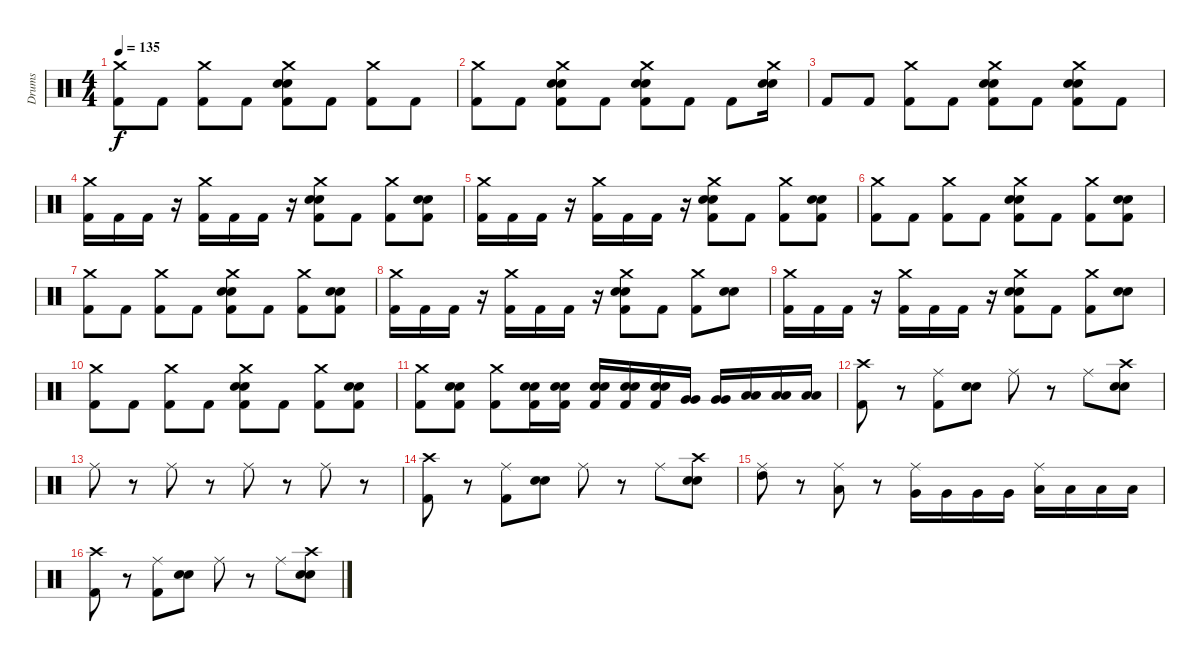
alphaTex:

\track ("Drums" "Drums") {instrument percussion}
\staff {score}
\articulation defaults
\ts (4 4)
\tempo 135
\clef neutral
\ks c
("Crash medium (hit)" "Kick (hit) 2").8{dy f} "Kick (hit) 2".8 ("Crash medium (hit)" "Kick (hit) 2").8 "Kick (hit) 2".8 ("Crash medium (hit)" "Electric Snare (hit)" "Snare (hit) 2" "Kick (hit) 2").8 "Kick (hit) 2".8 ("Crash medium (hit)" "Kick (hit) 2").8 "Kick (hit) 2".8 |
("Crash medium (hit)" "Kick (hit) 2").8 "Kick (hit) 2".8 ("Crash medium (hit)" "Electric Snare (hit)" "Snare (hit) 2" "Kick (hit) 2").8 "Kick (hit) 2".8 ("Crash medium (hit)" "Electric Snare (hit)" "Snare (hit) 2" "Kick (hit) 2").8 "Kick (hit) 2".8 "Kick (hit) 2".8 ("Crash medium (hit)" "Electric Snare (hit)" "Snare (hit) 2").16 |
"Kick (hit) 2".8 "Kick (hit) 2".8 ("Crash medium (hit)" "Kick (hit) 2").8 "Kick (hit) 2".8 ("Crash medium (hit)" "Electric Snare (hit)" "Snare (hit) 2" "Kick (hit) 2").8 "Kick (hit) 2".8 ("Crash medium (hit)" "Electric Snare (hit)" "Snare (hit) 2" "Kick (hit) 2").8 "Kick (hit) 2".8 |
("Crash medium (hit)" "Kick (hit) 2").16 "Kick (hit) 2".16 "Kick (hit) 2".16 r.16 ("Crash medium (hit)" "Kick (hit) 2").16 "Kick (hit) 2".16 "Kick (hit) 2".16 r.16 ("Crash medium (hit)" "Electric Snare (hit)" "Snare (hit) 2" "Kick (hit) 2").8 "Kick (hit) 2".8 ("Crash medium (hit)" "Kick (hit) 2").8 ("Electric Snare (hit)" "Snare (hit) 2" "Kick (hit) 2").8 |
("Crash medium (hit)" "Kick (hit) 2").16 "Kick (hit) 2".16 "Kick (hit) 2".16 r.16 ("Crash medium (hit)" "Kick (hit) 2").16 "Kick (hit) 2".16 "Kick (hit) 2".16 r.16 ("Crash medium (hit)" "Electric Snare (hit)" "Snare (hit) 2" "Kick (hit) 2").8 "Kick (hit) 2".8 ("Crash medium (hit)" "Kick (hit) 2").8 ("Electric Snare (hit)" "Snare (hit) 2" "Kick (hit) 2").8 |
("Crash medium (hit)" "Kick (hit) 2").8 "Kick (hit) 2".8 ("Crash medium (hit)" "Kick (hit) 2").8 "Kick (hit) 2".8 ("Crash medium (hit)" "Electric Snare (hit)" "Snare (hit) 2" "Kick (hit) 2").8 "Kick (hit) 2".8 ("Crash medium (hit)" "Kick (hit) 2").8 ("Electric Snare (hit)" "Snare (hit) 2" "Kick (hit) 2").8 |
("Crash medium (hit)" "Kick (hit) 2").8 "Kick (hit) 2".8 ("Crash medium (hit)" "Kick (hit) 2").8 "Kick (hit) 2".8 ("Crash medium (hit)" "Electric Snare (hit)" "Snare (hit) 2" "Kick (hit) 2").8 "Kick (hit) 2".8 ("Crash medium (hit)" "Kick (hit) 2").8 ("Electric Snare (hit)" "Snare (hit) 2" "Kick (hit) 2").8 |
("Crash medium (hit)" "Kick (hit) 2").16 "Kick (hit) 2".16 "Kick (hit) 2".16 r.16 ("Crash medium (hit)" "Kick (hit) 2").16 "Kick (hit) 2".16 "Kick (hit) 2".16 r.16 ("Crash medium (hit)" "Electric Snare (hit)" "Snare (hit) 2" "Kick (hit) 2").8 "Kick (hit) 2".8 ("Crash medium (hit)" "Kick (hit) 2").8 ("Electric Snare (hit)" "Snare (hit) 2").8 |
("Crash medium (hit)" "Kick (hit) 2").16 "Kick (hit) 2".16 "Kick (hit) 2".16 r.16 ("Crash medium (hit)" "Kick (hit) 2").16 "Kick (hit) 2".16 "Kick (hit) 2".16 r.16 ("Crash medium (hit)" "Electric Snare (hit)" "Snare (hit) 2" "Kick (hit) 2").8 "Kick (hit) 2".8 ("Crash medium (hit)" "Kick (hit) 2").8 ("Electric Snare (hit)" "Snare (hit) 2").8 |
("Crash medium (hit)" "Kick (hit) 2").8 "Kick (hit) 2".8 ("Crash medium (hit)" "Kick (hit) 2").8 "Kick (hit) 2".8 ("Crash medium (hit)" "Electric Snare (hit)" "Snare (hit) 2" "Kick (hit) 2").8 "Kick (hit) 2".8 ("Crash medium (hit)" "Kick (hit) 2").8 ("Electric Snare (hit)" "Snare (hit) 2" "Kick (hit) 2").8 |
("Crash medium (hit)" "Kick (hit) 2").8 ("Electric Snare (hit)" "Snare (hit) 2" "Kick (hit) 2").8 ("Crash medium (hit)" "Kick (hit) 2").8 ("Electric Snare (hit)" "Snare (hit) 2" "Kick (hit) 2").16 ("Electric Snare (hit)" "Snare (hit) 2" "Kick (hit) 2").16 ("Electric Snare (hit)" "Snare (hit) 2" "Kick (hit) 2").16 ("Electric Snare (hit)" "Snare (hit) 2" "Kick (hit) 2").16 ("Electric Snare (hit)" "Snare (hit) 2" "Kick (hit) 2").16 ("Very Low Tom (hit)" "Very Low Tom (hit)").16 ("Very Low Tom (hit)" "Very Low Tom (hit)").16 ("Low Floor Tom (hit)" "Low Floor Tom (hit)").16 ("Low Floor Tom (hit)" "Low Floor Tom (hit)").16 ("Low Floor Tom (hit)" "Low Floor Tom (hit)").16 |
("Crash high (hit)" "Kick (hit) 2").8 r.8 ("Ride (middle)" "Kick (hit) 2").8 ("Electric Snare (hit)" "Snare (hit) 2").8 "Ride (middle)".8 r.8 "Ride (middle)".8 ("Crash high (hit)" "Electric Snare (hit)" "Snare (hit) 2").8 |
"Ride (middle)".8 r.8 "Ride (middle)".8 r.8 "Ride (middle)".8 r.8 "Ride (middle)".8 r.8 |
("Crash high (hit)" "Kick (hit) 2").8 r.8 ("Ride (middle)" "Kick (hit) 2").8 ("Electric Snare (hit)" "Snare (hit) 2").8 "Ride (middle)".8 r.8 "Ride (middle)".8 ("Crash high (hit)" "Electric Snare (hit)" "Snare (hit) 2").8 |
("Ride (middle)" "High Tom (hit)").8 r.8 ("Ride (middle)" "Low Tom (hit)").8 r.8 ("Ride (middle)" "Very Low Tom (hit)").16 "Very Low Tom (hit)".16 "Very Low Tom (hit)".16 "Very Low Tom (hit)".16 ("Ride (middle)" "Low Floor Tom (hit)").16 "Low Floor Tom (hit)".16 "Low Floor Tom (hit)".16 "Low Floor Tom (hit)".16 |
("Crash high (hit)" "Kick (hit) 2").8 r.8 ("Ride (middle)" "Kick (hit) 2").8 ("Electric Snare (hit)" "Snare (hit) 2").8 "Ride (middle)".8 r.8 "Ride (middle)".8 ("Crash high (hit)" "Electric Snare (hit)" "Snare (hit) 2").8
